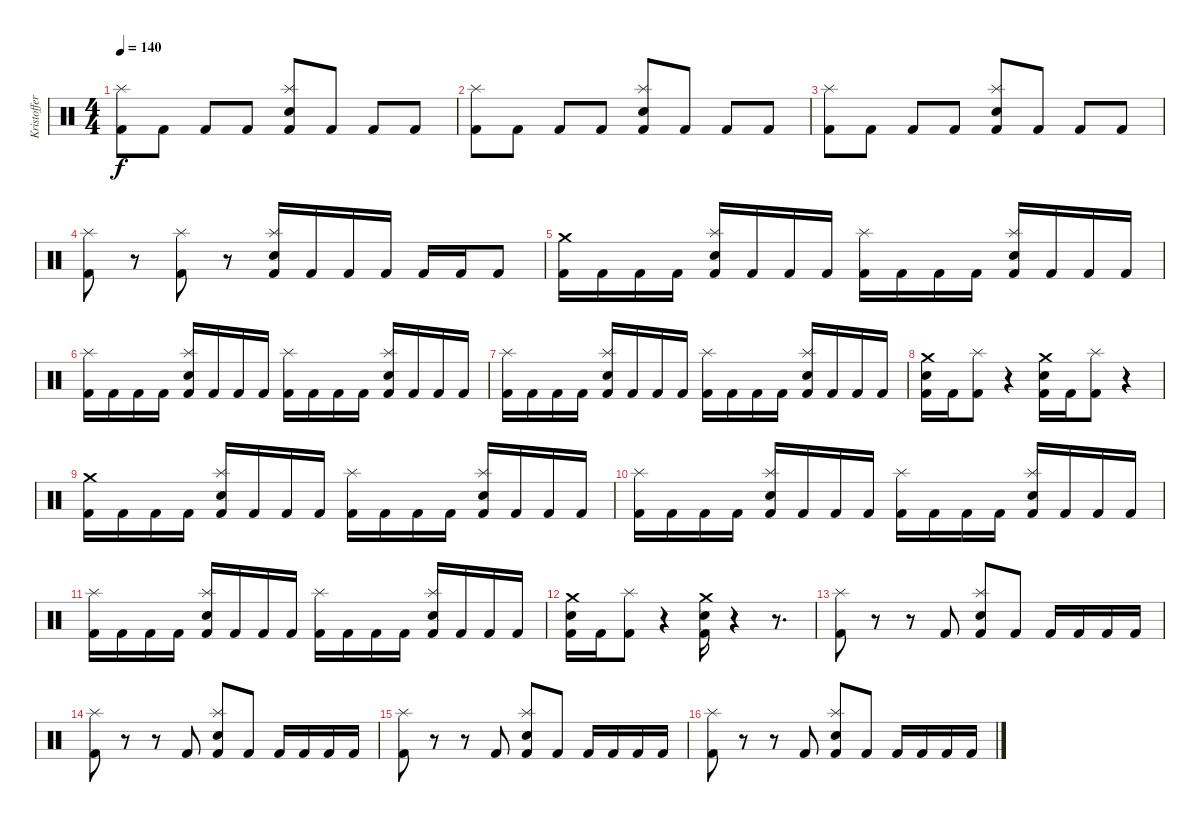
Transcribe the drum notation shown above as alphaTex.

\track ("Kristoffer (Drums)" "Kristoffer") {instrument percussion}
\staff {score}
\articulation defaults
\ts (4 4)
\tempo 140
\clef neutral
\ks c
("Kick (hit) 2" "Splash (hit)").8{dy f} "Kick (hit) 2".8 "Kick (hit) 2".8 "Kick (hit) 2".8 ("Kick (hit) 2" "Electric Snare (hit)" "Splash (hit)").8 "Kick (hit) 2".8 "Kick (hit) 2".8 "Kick (hit) 2".8 |
("Kick (hit) 2" "Splash (hit)").8 "Kick (hit) 2".8 "Kick (hit) 2".8 "Kick (hit) 2".8 ("Kick (hit) 2" "Electric Snare (hit)" "Splash (hit)").8 "Kick (hit) 2".8 "Kick (hit) 2".8 "Kick (hit) 2".8 |
("Kick (hit) 2" "Splash (hit)").8 "Kick (hit) 2".8 "Kick (hit) 2".8 "Kick (hit) 2".8 ("Kick (hit) 2" "Electric Snare (hit)" "Splash (hit)").8 "Kick (hit) 2".8 "Kick (hit) 2".8 "Kick (hit) 2".8 |
("Kick (hit) 2" "Splash (hit)").8 r.8 ("Kick (hit) 2" "Splash (hit)").8 r.8 ("Kick (hit) 2" "Electric Snare (hit)" "Splash (hit)").16 "Kick (hit) 2".16 "Kick (hit) 2".16 "Kick (hit) 2".16 "Kick (hit) 2".16 "Kick (hit) 2".16 "Kick (hit) 2".8 |
("Kick (hit) 2" "Crash medium (hit)").16 "Kick (hit) 2".16 "Kick (hit) 2".16 "Kick (hit) 2".16 ("Kick (hit) 2" "Electric Snare (hit)" "Splash (hit)").16 "Kick (hit) 2".16 "Kick (hit) 2".16 "Kick (hit) 2".16 ("Kick (hit) 2" "Splash (hit)").16 "Kick (hit) 2".16 "Kick (hit) 2".16 "Kick (hit) 2".16 ("Kick (hit) 2" "Electric Snare (hit)" "Splash (hit)").16 "Kick (hit) 2".16 "Kick (hit) 2".16 "Kick (hit) 2".16 |
("Kick (hit) 2" "Splash (hit)").16 "Kick (hit) 2".16 "Kick (hit) 2".16 "Kick (hit) 2".16 ("Kick (hit) 2" "Electric Snare (hit)" "Splash (hit)").16 "Kick (hit) 2".16 "Kick (hit) 2".16 "Kick (hit) 2".16 ("Kick (hit) 2" "Splash (hit)").16 "Kick (hit) 2".16 "Kick (hit) 2".16 "Kick (hit) 2".16 ("Kick (hit) 2" "Electric Snare (hit)" "Splash (hit)").16 "Kick (hit) 2".16 "Kick (hit) 2".16 "Kick (hit) 2".16 |
("Kick (hit) 2" "Splash (hit)").16 "Kick (hit) 2".16 "Kick (hit) 2".16 "Kick (hit) 2".16 ("Kick (hit) 2" "Electric Snare (hit)" "Splash (hit)").16 "Kick (hit) 2".16 "Kick (hit) 2".16 "Kick (hit) 2".16 ("Kick (hit) 2" "Splash (hit)").16 "Kick (hit) 2".16 "Kick (hit) 2".16 "Kick (hit) 2".16 ("Kick (hit) 2" "Electric Snare (hit)" "Splash (hit)").16 "Kick (hit) 2".16 "Kick (hit) 2".16 "Kick (hit) 2".16 |
("Kick (hit) 2" "Electric Snare (hit)" "Crash medium (hit)").16 "Kick (hit) 2".16 ("Kick (hit) 2" "Splash (hit)").8 r.4 ("Kick (hit) 2" "Electric Snare (hit)" "Crash medium (hit)").16 "Kick (hit) 2".16 ("Kick (hit) 2" "Splash (hit)").8 r.4 |
("Kick (hit) 2" "Crash medium (hit)").16 "Kick (hit) 2".16 "Kick (hit) 2".16 "Kick (hit) 2".16 ("Kick (hit) 2" "Electric Snare (hit)" "Splash (hit)").16 "Kick (hit) 2".16 "Kick (hit) 2".16 "Kick (hit) 2".16 ("Kick (hit) 2" "Splash (hit)").16 "Kick (hit) 2".16 "Kick (hit) 2".16 "Kick (hit) 2".16 ("Kick (hit) 2" "Electric Snare (hit)" "Splash (hit)").16 "Kick (hit) 2".16 "Kick (hit) 2".16 "Kick (hit) 2".16 |
("Kick (hit) 2" "Splash (hit)").16 "Kick (hit) 2".16 "Kick (hit) 2".16 "Kick (hit) 2".16 ("Kick (hit) 2" "Electric Snare (hit)" "Splash (hit)").16 "Kick (hit) 2".16 "Kick (hit) 2".16 "Kick (hit) 2".16 ("Kick (hit) 2" "Splash (hit)").16 "Kick (hit) 2".16 "Kick (hit) 2".16 "Kick (hit) 2".16 ("Kick (hit) 2" "Electric Snare (hit)" "Splash (hit)").16 "Kick (hit) 2".16 "Kick (hit) 2".16 "Kick (hit) 2".16 |
("Kick (hit) 2" "Splash (hit)").16 "Kick (hit) 2".16 "Kick (hit) 2".16 "Kick (hit) 2".16 ("Kick (hit) 2" "Electric Snare (hit)" "Splash (hit)").16 "Kick (hit) 2".16 "Kick (hit) 2".16 "Kick (hit) 2".16 ("Kick (hit) 2" "Splash (hit)").16 "Kick (hit) 2".16 "Kick (hit) 2".16 "Kick (hit) 2".16 ("Kick (hit) 2" "Electric Snare (hit)" "Splash (hit)").16 "Kick (hit) 2".16 "Kick (hit) 2".16 "Kick (hit) 2".16 |
("Kick (hit) 2" "Electric Snare (hit)" "Crash medium (hit)").16 "Kick (hit) 2".16 ("Kick (hit) 2" "Splash (hit)").8 r.4 ("Kick (hit) 2" "Electric Snare (hit)" "Crash medium (hit)").16 r.4 r.8{d} |
("Kick (hit) 2" "Splash (hit)").8 r.8 r.8 "Kick (hit) 2".8 ("Kick (hit) 2" "Electric Snare (hit)" "Splash (hit)").8 "Kick (hit) 2".8 "Kick (hit) 2".16 "Kick (hit) 2".16 "Kick (hit) 2".16 "Kick (hit) 2".16 |
("Kick (hit) 2" "Splash (hit)").8 r.8 r.8 "Kick (hit) 2".8 ("Kick (hit) 2" "Electric Snare (hit)" "Splash (hit)").8 "Kick (hit) 2".8 "Kick (hit) 2".16 "Kick (hit) 2".16 "Kick (hit) 2".16 "Kick (hit) 2".16 |
("Kick (hit) 2" "Splash (hit)").8 r.8 r.8 "Kick (hit) 2".8 ("Kick (hit) 2" "Electric Snare (hit)" "Splash (hit)").8 "Kick (hit) 2".8 "Kick (hit) 2".16 "Kick (hit) 2".16 "Kick (hit) 2".16 "Kick (hit) 2".16 |
("Kick (hit) 2" "Splash (hit)").8 r.8 r.8 "Kick (hit) 2".8 ("Kick (hit) 2" "Electric Snare (hit)" "Splash (hit)").8 "Kick (hit) 2".8 "Kick (hit) 2".16 "Kick (hit) 2".16 "Kick (hit) 2".16 "Kick (hit) 2".16
